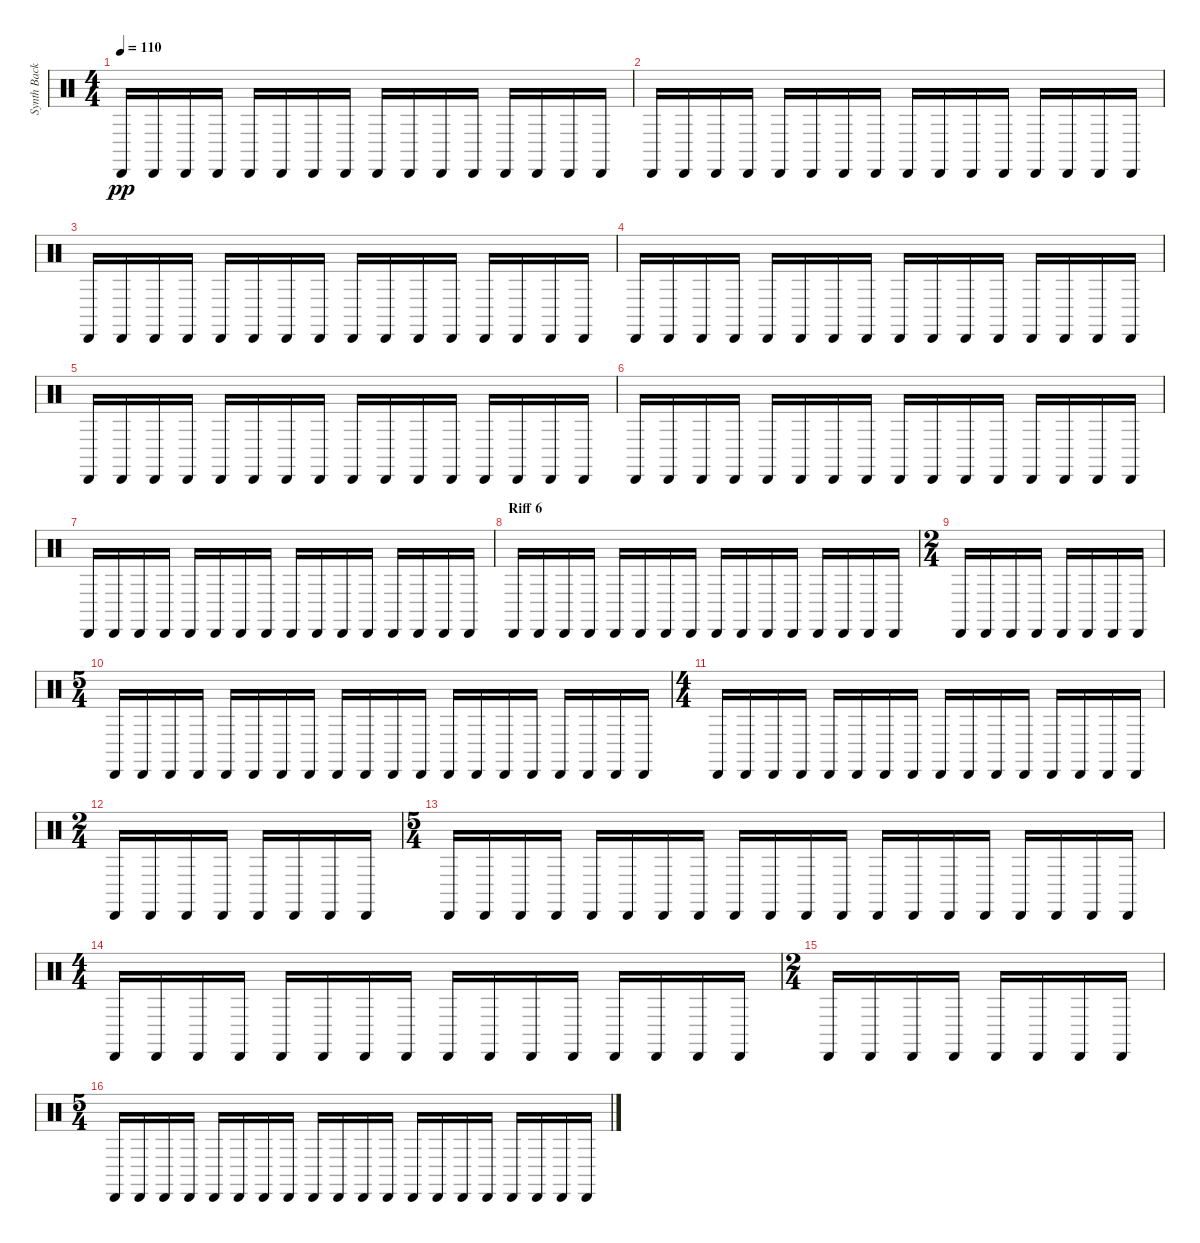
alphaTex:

\track ("Synth Background Rhythm" "Synth Back") {instrument percussion}
\staff {score}
\articulation defaults
\ts (4 4)
\tempo 110
\clef neutral
\ks c "Cabasa (hit)".16{dy pp} "Cabasa (hit)".16 "Cabasa (hit)".16 "Cabasa (hit)".16 "Cabasa (hit)".16 "Cabasa (hit)".16 "Cabasa (hit)".16 "Cabasa (hit)".16 "Cabasa (hit)".16 "Cabasa (hit)".16 "Cabasa (hit)".16 "Cabasa (hit)".16 "Cabasa (hit)".16 "Cabasa (hit)".16 "Cabasa (hit)".16 "Cabasa (hit)".16
|
"Cabasa (hit)".16 "Cabasa (hit)".16 "Cabasa (hit)".16 "Cabasa (hit)".16 "Cabasa (hit)".16 "Cabasa (hit)".16 "Cabasa (hit)".16 "Cabasa (hit)".16 "Cabasa (hit)".16 "Cabasa (hit)".16 "Cabasa (hit)".16 "Cabasa (hit)".16 "Cabasa (hit)".16 "Cabasa (hit)".16 "Cabasa (hit)".16 "Cabasa (hit)".16 |
"Cabasa (hit)".16 "Cabasa (hit)".16 "Cabasa (hit)".16 "Cabasa (hit)".16 "Cabasa (hit)".16 "Cabasa (hit)".16 "Cabasa (hit)".16 "Cabasa (hit)".16 "Cabasa (hit)".16 "Cabasa (hit)".16 "Cabasa (hit)".16 "Cabasa (hit)".16 "Cabasa (hit)".16 "Cabasa (hit)".16 "Cabasa (hit)".16 "Cabasa (hit)".16 |
"Cabasa (hit)".16 "Cabasa (hit)".16 "Cabasa (hit)".16 "Cabasa (hit)".16 "Cabasa (hit)".16 "Cabasa (hit)".16 "Cabasa (hit)".16 "Cabasa (hit)".16 "Cabasa (hit)".16 "Cabasa (hit)".16 "Cabasa (hit)".16 "Cabasa (hit)".16 "Cabasa (hit)".16 "Cabasa (hit)".16 "Cabasa (hit)".16 "Cabasa (hit)".16 |
"Cabasa (hit)".16 "Cabasa (hit)".16 "Cabasa (hit)".16 "Cabasa (hit)".16 "Cabasa (hit)".16 "Cabasa (hit)".16 "Cabasa (hit)".16 "Cabasa (hit)".16 "Cabasa (hit)".16 "Cabasa (hit)".16 "Cabasa (hit)".16 "Cabasa (hit)".16 "Cabasa (hit)".16 "Cabasa (hit)".16 "Cabasa (hit)".16 "Cabasa (hit)".16 |
"Cabasa (hit)".16 "Cabasa (hit)".16 "Cabasa (hit)".16 "Cabasa (hit)".16 "Cabasa (hit)".16 "Cabasa (hit)".16 "Cabasa (hit)".16 "Cabasa (hit)".16 "Cabasa (hit)".16 "Cabasa (hit)".16 "Cabasa (hit)".16 "Cabasa (hit)".16 "Cabasa (hit)".16 "Cabasa (hit)".16 "Cabasa (hit)".16 "Cabasa (hit)".16 |
"Cabasa (hit)".16 "Cabasa (hit)".16 "Cabasa (hit)".16 "Cabasa (hit)".16 "Cabasa (hit)".16 "Cabasa (hit)".16 "Cabasa (hit)".16 "Cabasa (hit)".16 "Cabasa (hit)".16 "Cabasa (hit)".16 "Cabasa (hit)".16 "Cabasa (hit)".16 "Cabasa (hit)".16 "Cabasa (hit)".16 "Cabasa (hit)".16 "Cabasa (hit)".16 |
\section ("" "Riff 6")
"Cabasa (hit)".16 "Cabasa (hit)".16 "Cabasa (hit)".16 "Cabasa (hit)".16 "Cabasa (hit)".16 "Cabasa (hit)".16 "Cabasa (hit)".16 "Cabasa (hit)".16 "Cabasa (hit)".16 "Cabasa (hit)".16 "Cabasa (hit)".16 "Cabasa (hit)".16 "Cabasa (hit)".16 "Cabasa (hit)".16 "Cabasa (hit)".16 "Cabasa (hit)".16 |
\ts (2 4)
"Cabasa (hit)".16 "Cabasa (hit)".16 "Cabasa (hit)".16 "Cabasa (hit)".16 "Cabasa (hit)".16 "Cabasa (hit)".16 "Cabasa (hit)".16 "Cabasa (hit)".16 |
\ts (5 4)
"Cabasa (hit)".16 "Cabasa (hit)".16 "Cabasa (hit)".16 "Cabasa (hit)".16 "Cabasa (hit)".16 "Cabasa (hit)".16 "Cabasa (hit)".16 "Cabasa (hit)".16 "Cabasa (hit)".16 "Cabasa (hit)".16 "Cabasa (hit)".16 "Cabasa (hit)".16 "Cabasa (hit)".16 "Cabasa (hit)".16 "Cabasa (hit)".16 "Cabasa (hit)".16 "Cabasa (hit)".16 "Cabasa (hit)".16 "Cabasa (hit)".16 "Cabasa (hit)".16 |
\ts (4 4)
"Cabasa (hit)".16 "Cabasa (hit)".16 "Cabasa (hit)".16 "Cabasa (hit)".16 "Cabasa (hit)".16 "Cabasa (hit)".16 "Cabasa (hit)".16 "Cabasa (hit)".16 "Cabasa (hit)".16 "Cabasa (hit)".16 "Cabasa (hit)".16 "Cabasa (hit)".16 "Cabasa (hit)".16 "Cabasa (hit)".16 "Cabasa (hit)".16 "Cabasa (hit)".16 |
\ts (2 4)
"Cabasa (hit)".16 "Cabasa (hit)".16 "Cabasa (hit)".16 "Cabasa (hit)".16 "Cabasa (hit)".16 "Cabasa (hit)".16 "Cabasa (hit)".16 "Cabasa (hit)".16 |
\ts (5 4)
"Cabasa (hit)".16 "Cabasa (hit)".16 "Cabasa (hit)".16 "Cabasa (hit)".16 "Cabasa (hit)".16 "Cabasa (hit)".16 "Cabasa (hit)".16 "Cabasa (hit)".16 "Cabasa (hit)".16 "Cabasa (hit)".16 "Cabasa (hit)".16 "Cabasa (hit)".16 "Cabasa (hit)".16 "Cabasa (hit)".16 "Cabasa (hit)".16 "Cabasa (hit)".16 "Cabasa (hit)".16 "Cabasa (hit)".16 "Cabasa (hit)".16 "Cabasa (hit)".16 |
\ts (4 4)
"Cabasa (hit)".16 "Cabasa (hit)".16 "Cabasa (hit)".16 "Cabasa (hit)".16 "Cabasa (hit)".16 "Cabasa (hit)".16 "Cabasa (hit)".16 "Cabasa (hit)".16 "Cabasa (hit)".16 "Cabasa (hit)".16 "Cabasa (hit)".16 "Cabasa (hit)".16 "Cabasa (hit)".16 "Cabasa (hit)".16 "Cabasa (hit)".16 "Cabasa (hit)".16 |
\ts (2 4)
"Cabasa (hit)".16 "Cabasa (hit)".16 "Cabasa (hit)".16 "Cabasa (hit)".16 "Cabasa (hit)".16 "Cabasa (hit)".16 "Cabasa (hit)".16 "Cabasa (hit)".16 |
\ts (5 4)
"Cabasa (hit)".16 "Cabasa (hit)".16 "Cabasa (hit)".16 "Cabasa (hit)".16 "Cabasa (hit)".16 "Cabasa (hit)".16 "Cabasa (hit)".16 "Cabasa (hit)".16 "Cabasa (hit)".16 "Cabasa (hit)".16 "Cabasa (hit)".16 "Cabasa (hit)".16 "Cabasa (hit)".16 "Cabasa (hit)".16 "Cabasa (hit)".16 "Cabasa (hit)".16 "Cabasa (hit)".16 "Cabasa (hit)".16 "Cabasa (hit)".16 "Cabasa (hit)".16
